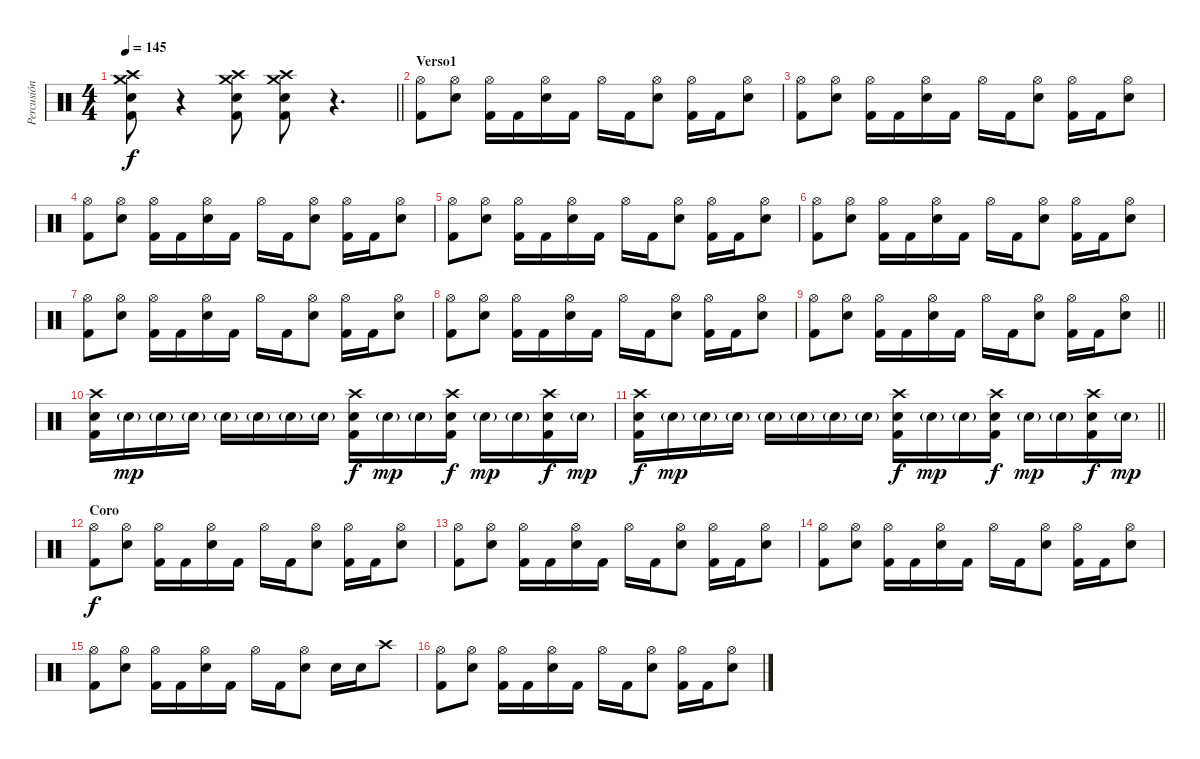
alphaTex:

\track ("Percusión" "Percusión") {instrument percussion}
\staff {score}
\articulation defaults
\ts (4 4)
\tempo 145
\clef neutral
\barLineRight lightlight
\ks c
("Crash medium (hit)" "Crash high (hit)" "Electric Snare (hit)" "Kick (hit) 2").8{dy f} r.4 ("Crash medium (hit)" "Crash high (hit)" "Electric Snare (hit)" "Kick (hit) 2").8 ("Crash medium (hit)" "Crash high (hit)" "Electric Snare (hit)" "Kick (hit) 2").8 r.4{d} |
\section ("" "Verso1")
("Hi-Hat (open)" "Kick (hit) 2").8 ("Hi-Hat (open)" "Electric Snare (hit)").8 ("Hi-Hat (open)" "Kick (hit) 2").16 "Kick (hit) 2".16 ("Hi-Hat (open)" "Electric Snare (hit)").16 "Kick (hit) 2".16 "Hi-Hat (open)".16 "Kick (hit) 2".16 ("Hi-Hat (open)" "Electric Snare (hit)").8 ("Hi-Hat (open)" "Kick (hit) 2").16 "Kick (hit) 2".16 ("Hi-Hat (open)" "Electric Snare (hit)").8 |
("Hi-Hat (open)" "Kick (hit) 2").8 ("Hi-Hat (open)" "Electric Snare (hit)").8 ("Hi-Hat (open)" "Kick (hit) 2").16 "Kick (hit) 2".16 ("Hi-Hat (open)" "Electric Snare (hit)").16 "Kick (hit) 2".16 "Hi-Hat (open)".16 "Kick (hit) 2".16 ("Hi-Hat (open)" "Electric Snare (hit)").8 ("Hi-Hat (open)" "Kick (hit) 2").16 "Kick (hit) 2".16 ("Hi-Hat (open)" "Electric Snare (hit)").8 |
("Hi-Hat (open)" "Kick (hit) 2").8 ("Hi-Hat (open)" "Electric Snare (hit)").8 ("Hi-Hat (open)" "Kick (hit) 2").16 "Kick (hit) 2".16 ("Hi-Hat (open)" "Electric Snare (hit)").16 "Kick (hit) 2".16 "Hi-Hat (open)".16 "Kick (hit) 2".16 ("Hi-Hat (open)" "Electric Snare (hit)").8 ("Hi-Hat (open)" "Kick (hit) 2").16 "Kick (hit) 2".16 ("Hi-Hat (open)" "Electric Snare (hit)").8 |
("Hi-Hat (open)" "Kick (hit) 2").8 ("Hi-Hat (open)" "Electric Snare (hit)").8 ("Hi-Hat (open)" "Kick (hit) 2").16 "Kick (hit) 2".16 ("Hi-Hat (open)" "Electric Snare (hit)").16 "Kick (hit) 2".16 "Hi-Hat (open)".16 "Kick (hit) 2".16 ("Hi-Hat (open)" "Electric Snare (hit)").8 ("Hi-Hat (open)" "Kick (hit) 2").16 "Kick (hit) 2".16 ("Hi-Hat (open)" "Electric Snare (hit)").8 |
("Hi-Hat (open)" "Kick (hit) 2").8 ("Hi-Hat (open)" "Electric Snare (hit)").8 ("Hi-Hat (open)" "Kick (hit) 2").16 "Kick (hit) 2".16 ("Hi-Hat (open)" "Electric Snare (hit)").16 "Kick (hit) 2".16 "Hi-Hat (open)".16 "Kick (hit) 2".16 ("Hi-Hat (open)" "Electric Snare (hit)").8 ("Hi-Hat (open)" "Kick (hit) 2").16 "Kick (hit) 2".16 ("Hi-Hat (open)" "Electric Snare (hit)").8 |
("Hi-Hat (open)" "Kick (hit) 2").8 ("Hi-Hat (open)" "Electric Snare (hit)").8 ("Hi-Hat (open)" "Kick (hit) 2").16 "Kick (hit) 2".16 ("Hi-Hat (open)" "Electric Snare (hit)").16 "Kick (hit) 2".16 "Hi-Hat (open)".16 "Kick (hit) 2".16 ("Hi-Hat (open)" "Electric Snare (hit)").8 ("Hi-Hat (open)" "Kick (hit) 2").16 "Kick (hit) 2".16 ("Hi-Hat (open)" "Electric Snare (hit)").8 |
("Hi-Hat (open)" "Kick (hit) 2").8 ("Hi-Hat (open)" "Electric Snare (hit)").8 ("Hi-Hat (open)" "Kick (hit) 2").16 "Kick (hit) 2".16 ("Hi-Hat (open)" "Electric Snare (hit)").16 "Kick (hit) 2".16 "Hi-Hat (open)".16 "Kick (hit) 2".16 ("Hi-Hat (open)" "Electric Snare (hit)").8 ("Hi-Hat (open)" "Kick (hit) 2").16 "Kick (hit) 2".16 ("Hi-Hat (open)" "Electric Snare (hit)").8 |
\barLineRight lightlight
("Hi-Hat (open)" "Kick (hit) 2").8 ("Hi-Hat (open)" "Electric Snare (hit)").8 ("Hi-Hat (open)" "Kick (hit) 2").16 "Kick (hit) 2".16 ("Hi-Hat (open)" "Electric Snare (hit)").16 "Kick (hit) 2".16 "Hi-Hat (open)".16 "Kick (hit) 2".16 ("Hi-Hat (open)" "Electric Snare (hit)").8 ("Hi-Hat (open)" "Kick (hit) 2").16 "Kick (hit) 2".16 ("Hi-Hat (open)" "Electric Snare (hit)").8 |
\section ("" "")
("Crash high (hit)" "Electric Snare (hit)" "Kick (hit) 2").16 "Electric Snare (hit)"{g}.16{dy mp} "Electric Snare (hit)"{g}.16 "Electric Snare (hit)"{g}.16 "Electric Snare (hit)"{g}.16 "Electric Snare (hit)"{g}.16 "Electric Snare (hit)"{g}.16 "Electric Snare (hit)"{g}.16 ("Crash high (hit)" "Electric Snare (hit)" "Kick (hit) 2").16{dy f} "Electric Snare (hit)"{g}.16{dy mp} "Electric Snare (hit)"{g}.16 ("Crash high (hit)" "Electric Snare (hit)" "Kick (hit) 2").16{dy f} "Electric Snare (hit)"{g}.16{dy mp} "Electric Snare (hit)"{g}.16 ("Crash high (hit)" "Electric Snare (hit)" "Kick (hit) 2").16{dy f} "Electric Snare (hit)"{g}.16{dy mp} |
\barLineRight lightlight
("Crash high (hit)" "Electric Snare (hit)" "Kick (hit) 2").16{dy f} "Electric Snare (hit)"{g}.16{dy mp} "Electric Snare (hit)"{g}.16 "Electric Snare (hit)"{g}.16 "Electric Snare (hit)"{g}.16 "Electric Snare (hit)"{g}.16 "Electric Snare (hit)"{g}.16 "Electric Snare (hit)"{g}.16 ("Crash high (hit)" "Electric Snare (hit)" "Kick (hit) 2").16{dy f} "Electric Snare (hit)"{g}.16{dy mp} "Electric Snare (hit)"{g}.16 ("Crash high (hit)" "Electric Snare (hit)" "Kick (hit) 2").16{dy f} "Electric Snare (hit)"{g}.16{dy mp} "Electric Snare (hit)"{g}.16 ("Crash high (hit)" "Electric Snare (hit)" "Kick (hit) 2").16{dy f} "Electric Snare (hit)"{g}.16{dy mp} |
\section ("" "Coro")
("Hi-Hat (open)" "Kick (hit) 2").8{dy f} ("Hi-Hat (open)" "Electric Snare (hit)").8 ("Hi-Hat (open)" "Kick (hit) 2").16 "Kick (hit) 2".16 ("Hi-Hat (open)" "Electric Snare (hit)").16 "Kick (hit) 2".16 "Hi-Hat (open)".16 "Kick (hit) 2".16 ("Hi-Hat (open)" "Electric Snare (hit)").8 ("Hi-Hat (open)" "Kick (hit) 2").16 "Kick (hit) 2".16 ("Hi-Hat (open)" "Electric Snare (hit)").8 |
("Hi-Hat (open)" "Kick (hit) 2").8 ("Hi-Hat (open)" "Electric Snare (hit)").8 ("Hi-Hat (open)" "Kick (hit) 2").16 "Kick (hit) 2".16 ("Hi-Hat (open)" "Electric Snare (hit)").16 "Kick (hit) 2".16 "Hi-Hat (open)".16 "Kick (hit) 2".16 ("Hi-Hat (open)" "Electric Snare (hit)").8 ("Hi-Hat (open)" "Kick (hit) 2").16 "Kick (hit) 2".16 ("Hi-Hat (open)" "Electric Snare (hit)").8 |
("Hi-Hat (open)" "Kick (hit) 2").8 ("Hi-Hat (open)" "Electric Snare (hit)").8 ("Hi-Hat (open)" "Kick (hit) 2").16 "Kick (hit) 2".16 ("Hi-Hat (open)" "Electric Snare (hit)").16 "Kick (hit) 2".16 "Hi-Hat (open)".16 "Kick (hit) 2".16 ("Hi-Hat (open)" "Electric Snare (hit)").8 ("Hi-Hat (open)" "Kick (hit) 2").16 "Kick (hit) 2".16 ("Hi-Hat (open)" "Electric Snare (hit)").8 |
("Hi-Hat (open)" "Kick (hit) 2").8 ("Hi-Hat (open)" "Electric Snare (hit)").8 ("Hi-Hat (open)" "Kick (hit) 2").16 "Kick (hit) 2".16 ("Hi-Hat (open)" "Electric Snare (hit)").16 "Kick (hit) 2".16 "Hi-Hat (open)".16 "Kick (hit) 2".16 ("Hi-Hat (open)" "Electric Snare (hit)").8 "Electric Snare (hit)".16 "Electric Snare (hit)".16 "Crash high (hit)".8 |
("Hi-Hat (open)" "Kick (hit) 2").8 ("Hi-Hat (open)" "Electric Snare (hit)").8 ("Hi-Hat (open)" "Kick (hit) 2").16 "Kick (hit) 2".16 ("Hi-Hat (open)" "Electric Snare (hit)").16 "Kick (hit) 2".16 "Hi-Hat (open)".16 "Kick (hit) 2".16 ("Hi-Hat (open)" "Electric Snare (hit)").8 ("Hi-Hat (open)" "Kick (hit) 2").16 "Kick (hit) 2".16 ("Hi-Hat (open)" "Electric Snare (hit)").8
